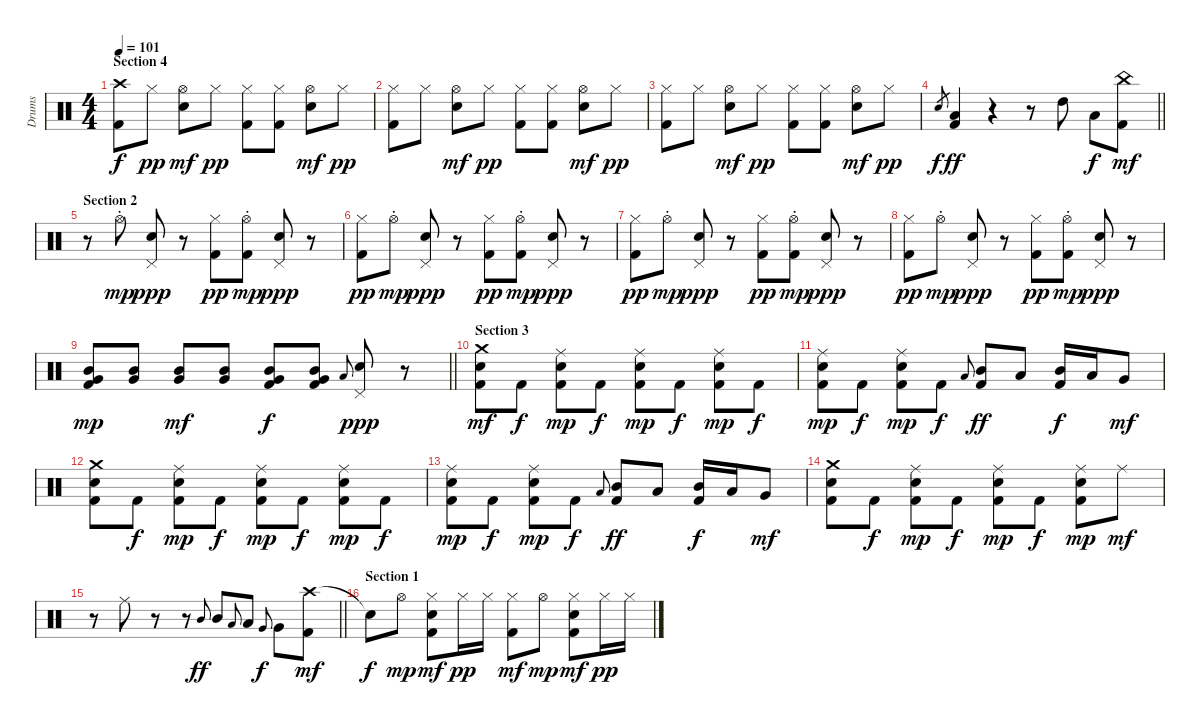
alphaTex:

\track ("Drums" "Drums") {instrument percussion}
\staff {score}
\articulation defaults
\ts (4 4)
\section ("" "Section 4")
\tempo 101
\clef neutral
\ks c
("Crash high (hit)"{t} "Kick (hit) 2"{t}).8{dy f} "Hi-Hat (closed)".8{dy pp} ("Hi-Hat (open)" "Snare (hit) 2").8{dy mf} "Hi-Hat (closed)".8{dy pp} ("Hi-Hat (closed)" "Kick (hit) 2").8 ("Hi-Hat (closed)" "Kick (hit) 2").8 ("Hi-Hat (open)" "Snare (hit) 2").8{dy mf} "Hi-Hat (closed)".8{dy pp} |
("Hi-Hat (closed)" "Kick (hit) 2").8 "Hi-Hat (closed)".8 ("Hi-Hat (open)" "Snare (hit) 2").8{dy mf} "Hi-Hat (closed)".8{dy pp} ("Hi-Hat (closed)" "Kick (hit) 2").8 ("Hi-Hat (closed)" "Kick (hit) 2").8 ("Hi-Hat (open)" "Snare (hit) 2").8{dy mf} "Hi-Hat (closed)".8{dy pp} |
("Hi-Hat (closed)" "Kick (hit) 2").8 "Hi-Hat (closed)".8 ("Hi-Hat (open)" "Snare (hit) 2").8{dy mf} "Hi-Hat (closed)".8{dy pp} ("Hi-Hat (closed)" "Kick (hit) 2").8 ("Hi-Hat (closed)" "Kick (hit) 2").8 ("Hi-Hat (open)" "Snare (hit) 2").8{dy mf} "Hi-Hat (closed)".8{dy pp} |
\barLineRight lightlight "Snare (hit) 2".8{gr dy f}
("Low Tom (hit)" "Kick (hit) 2").4{dy ff} r.4 r.8 "High Tom (hit)".8 "Low Tom (hit)".8{dy f} ("China (hit)" "Kick (hit) 2").8{dy mf} |
\section ("" "Section 2")
r.8 "Hi-Hat (open)"{st}.8{dy mp} ("Pedal Hi-Hat (hit)" "Snare (hit) 2").8{dy ppp} r.8 ("Hi-Hat (closed)" "Kick (hit) 2").8{dy pp} ("Hi-Hat (open)"{st} "Kick (hit) 2").8{dy mp} ("Pedal Hi-Hat (hit)" "Snare (hit) 2").8{dy ppp} r.8 |
("Hi-Hat (closed)" "Kick (hit) 2").8{dy pp} "Hi-Hat (open)"{st}.8{dy mp} ("Pedal Hi-Hat (hit)" "Snare (hit) 2").8{dy ppp} r.8 ("Hi-Hat (closed)" "Kick (hit) 2").8{dy pp} ("Hi-Hat (open)"{st} "Kick (hit) 2").8{dy mp} ("Pedal Hi-Hat (hit)" "Snare (hit) 2").8{dy ppp} r.8 |
("Hi-Hat (closed)" "Kick (hit) 2").8{dy pp} "Hi-Hat (open)"{st}.8{dy mp} ("Pedal Hi-Hat (hit)" "Snare (hit) 2").8{dy ppp} r.8 ("Hi-Hat (closed)" "Kick (hit) 2").8{dy pp} ("Hi-Hat (open)"{st} "Kick (hit) 2").8{dy mp} ("Pedal Hi-Hat (hit)" "Snare (hit) 2").8{dy ppp} r.8 |
("Hi-Hat (closed)" "Kick (hit) 2").8{dy pp} "Hi-Hat (open)"{st}.8{dy mp} ("Pedal Hi-Hat (hit)" "Snare (hit) 2").8{dy ppp} r.8 ("Hi-Hat (closed)" "Kick (hit) 2").8{dy pp} ("Hi-Hat (open)"{st} "Kick (hit) 2").8{dy mp} ("Pedal Hi-Hat (hit)" "Snare (hit) 2").8{dy ppp} r.8 |
\barLineRight lightlight
("Mid Tom (hit)" "Very Low Tom (hit)" "Kick (hit) 2").8{dy mp} ("Mid Tom (hit)" "Very Low Tom (hit)").8 ("Mid Tom (hit)" "Very Low Tom (hit)").8{dy mf} ("Mid Tom (hit)" "Very Low Tom (hit)").8 ("Mid Tom (hit)" "Very Low Tom (hit)" "Kick (hit) 2").8{dy f} ("Mid Tom (hit)" "Very Low Tom (hit)" "Kick (hit) 2").8 "Low Tom (hit)".8{gr onbeat} ("Pedal Hi-Hat (hit)" "Snare (hit) 2").8{dy ppp} r.8 |
\section ("" "Section 3")
("Crash medium (hit)" "Snare (hit) 2" "Kick (hit) 2").8{dy mf} "Kick (hit) 2".8{dy f} ("Ride (middle)" "Snare (hit) 2" "Kick (hit) 2").8{dy mp} "Kick (hit) 2".8{dy f} ("Ride (middle)" "Snare (hit) 2" "Kick (hit) 2").8{dy mp} "Kick (hit) 2".8{dy f} ("Ride (middle)" "Snare (hit) 2" "Kick (hit) 2").8{dy mp} "Kick (hit) 2".8{dy f} |
("Ride (middle)" "Snare (hit) 2" "Kick (hit) 2").8{dy mp} "Kick (hit) 2".8{dy f} ("Ride (middle)" "Snare (hit) 2" "Kick (hit) 2").8{dy mp} "Kick (hit) 2".8{dy f} "Low Tom (hit)".8{gr onbeat} ("Mid Tom (hit)" "Kick (hit) 2").8{dy ff} "Low Tom (hit)".8 ("Mid Tom (hit)" "Kick (hit) 2").16{dy f} "Low Tom (hit)".16 "Very Low Tom (hit)".8{dy mf} |
("Crash medium (hit)" "Snare (hit) 2" "Kick (hit) 2").8 "Kick (hit) 2".8{dy f} ("Ride (middle)" "Snare (hit) 2" "Kick (hit) 2").8{dy mp} "Kick (hit) 2".8{dy f} ("Ride (middle)" "Snare (hit) 2" "Kick (hit) 2").8{dy mp} "Kick (hit) 2".8{dy f} ("Ride (middle)" "Snare (hit) 2" "Kick (hit) 2").8{dy mp} "Kick (hit) 2".8{dy f} |
("Ride (middle)" "Snare (hit) 2" "Kick (hit) 2").8{dy mp} "Kick (hit) 2".8{dy f} ("Ride (middle)" "Snare (hit) 2" "Kick (hit) 2").8{dy mp} "Kick (hit) 2".8{dy f} "Low Tom (hit)".8{gr onbeat} ("Mid Tom (hit)" "Kick (hit) 2").8{dy ff} "Low Tom (hit)".8 ("Mid Tom (hit)" "Kick (hit) 2").16{dy f} "Low Tom (hit)".16 "Very Low Tom (hit)".8{dy mf} |
("Crash medium (hit)" "Snare (hit) 2" "Kick (hit) 2").8 "Kick (hit) 2".8{dy f} ("Ride (middle)" "Snare (hit) 2" "Kick (hit) 2").8{dy mp} "Kick (hit) 2".8{dy f} ("Ride (middle)" "Snare (hit) 2" "Kick (hit) 2").8{dy mp} "Kick (hit) 2".8{dy f} ("Ride (middle)" "Snare (hit) 2" "Kick (hit) 2").8{dy mp} "Ride (middle)".8{dy mf} |
\barLineRight lightlight
r.8 "Ride (middle)".8 r.8 r.8 "Mid Tom (hit)".8{gr onbeat dy ff} "Mid Tom (hit)".8 "Low Tom (hit)".8{gr onbeat} "Low Tom (hit)".8 "Very Low Tom (hit)".8{gr onbeat dy f} "Very Low Tom (hit)".8 ("Crash high (hit)" "Kick (hit) 2").8{dy mf} |
\section ("" "Section 1")
"Snare (hit)"{t}.8{dy f} "Hi-Hat (open)".8{dy mp} ("Hi-Hat (closed)" "Snare (hit) 2" "Kick (hit) 2").8{dy mf} "Hi-Hat (closed)".16{dy pp} "Hi-Hat (closed)".16 ("Hi-Hat (closed)" "Kick (hit) 2").8{dy mf} "Hi-Hat (open)".8{dy mp} ("Hi-Hat (closed)" "Snare (hit) 2" "Kick (hit) 2").8{dy mf} "Hi-Hat (closed)".16{dy pp} "Hi-Hat (closed)".16
